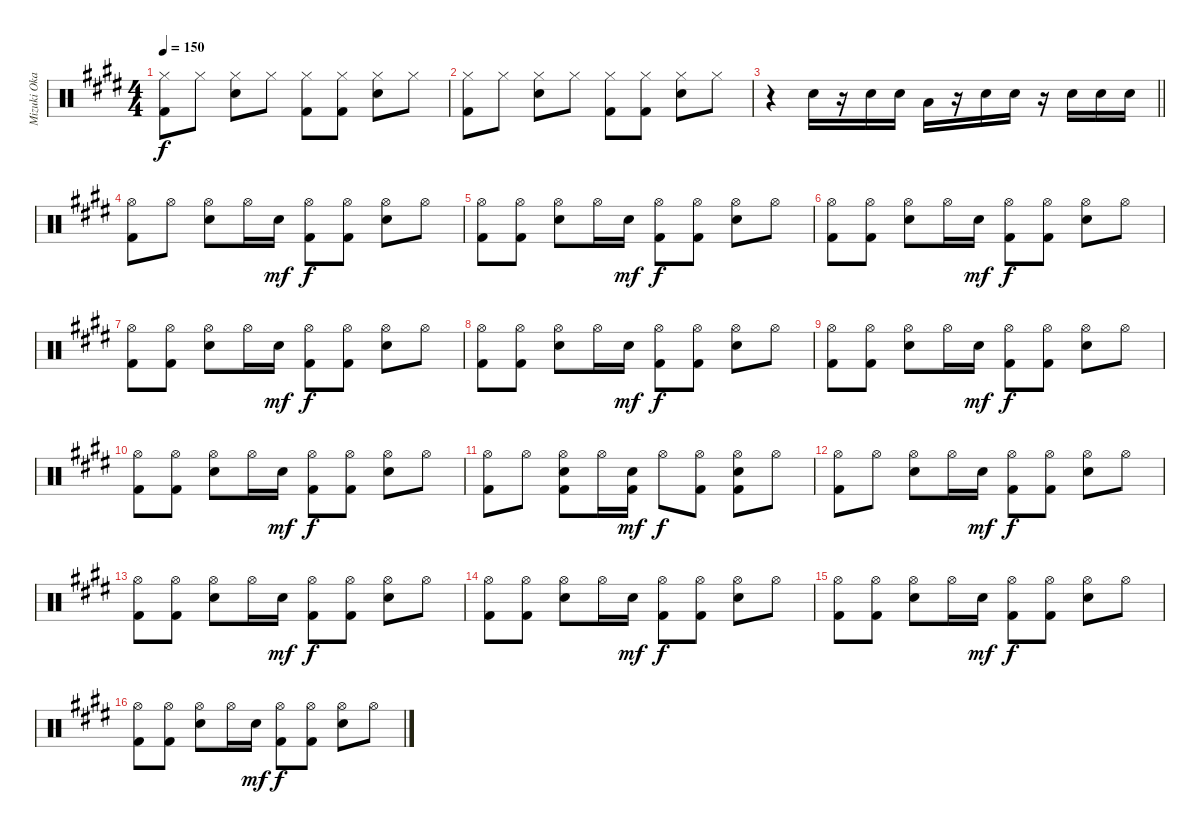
\track ("Mizuki Okajima (Drums)" "Mizuki Oka") {instrument percussion}
\staff {score}
\articulation defaults
\ts (4 4)
\tempo 150
\clef neutral
\ks c#minor
("Hi-Hat (closed)" "Kick (hit) 2").8{dy f} "Hi-Hat (closed)".8 ("Hi-Hat (closed)" "Snare (hit) 2").8 "Hi-Hat (closed)".8 ("Hi-Hat (closed)" "Kick (hit) 2").8 ("Hi-Hat (closed)" "Kick (hit) 2").8 ("Hi-Hat (closed)" "Snare (hit) 2").8 "Hi-Hat (closed)".8 |
("Hi-Hat (closed)" "Kick (hit) 2").8 "Hi-Hat (closed)".8 ("Hi-Hat (closed)" "Snare (hit) 2").8 "Hi-Hat (closed)".8 ("Hi-Hat (closed)" "Kick (hit) 2").8 ("Hi-Hat (closed)" "Kick (hit) 2").8 ("Hi-Hat (closed)" "Snare (hit) 2").8 "Hi-Hat (closed)".8 |
\barLineRight lightlight
r.4 "Snare (hit) 2".16 r.16 "Snare (hit) 2".16 "Snare (hit) 2".16 "Low Tom (hit)".16 r.16 "Snare (hit) 2".16 "Snare (hit) 2".16 r.16 "Snare (hit) 2".16 "Snare (hit) 2".16 "Snare (hit) 2".16 |
("Hi-Hat (open)" "Kick (hit) 2").8 "Hi-Hat (open)".8 ("Hi-Hat (open)" "Snare (hit) 2").8 "Hi-Hat (open)".16 "Snare (hit) 2".16{dy mf} ("Hi-Hat (open)" "Kick (hit) 2").8{dy f} ("Hi-Hat (open)" "Kick (hit) 2").8 ("Hi-Hat (open)" "Snare (hit) 2").8 "Hi-Hat (open)".8 |
("Hi-Hat (open)" "Kick (hit) 2").8 ("Hi-Hat (open)" "Kick (hit) 2").8 ("Hi-Hat (open)" "Snare (hit) 2").8 "Hi-Hat (open)".16 "Snare (hit) 2".16{dy mf} ("Hi-Hat (open)" "Kick (hit) 2").8{dy f} ("Hi-Hat (open)" "Kick (hit) 2").8 ("Hi-Hat (open)" "Snare (hit) 2").8 "Hi-Hat (open)".8 |
("Hi-Hat (open)" "Kick (hit) 2").8 ("Hi-Hat (open)" "Kick (hit) 2").8 ("Hi-Hat (open)" "Snare (hit) 2").8 "Hi-Hat (open)".16 "Snare (hit) 2".16{dy mf} ("Hi-Hat (open)" "Kick (hit) 2").8{dy f} ("Hi-Hat (open)" "Kick (hit) 2").8 ("Hi-Hat (open)" "Snare (hit) 2").8 "Hi-Hat (open)".8 |
("Hi-Hat (open)" "Kick (hit) 2").8 ("Hi-Hat (open)" "Kick (hit) 2").8 ("Hi-Hat (open)" "Snare (hit) 2").8 "Hi-Hat (open)".16 "Snare (hit) 2".16{dy mf} ("Hi-Hat (open)" "Kick (hit) 2").8{dy f} ("Hi-Hat (open)" "Kick (hit) 2").8 ("Hi-Hat (open)" "Snare (hit) 2").8 "Hi-Hat (open)".8 |
("Hi-Hat (open)" "Kick (hit) 2").8 ("Hi-Hat (open)" "Kick (hit) 2").8 ("Hi-Hat (open)" "Snare (hit) 2").8 "Hi-Hat (open)".16 "Snare (hit) 2".16{dy mf} ("Hi-Hat (open)" "Kick (hit) 2").8{dy f} ("Hi-Hat (open)" "Kick (hit) 2").8 ("Hi-Hat (open)" "Snare (hit) 2").8 "Hi-Hat (open)".8 |
("Hi-Hat (open)" "Kick (hit) 2").8 ("Hi-Hat (open)" "Kick (hit) 2").8 ("Hi-Hat (open)" "Snare (hit) 2").8 "Hi-Hat (open)".16 "Snare (hit) 2".16{dy mf} ("Hi-Hat (open)" "Kick (hit) 2").8{dy f} ("Hi-Hat (open)" "Kick (hit) 2").8 ("Hi-Hat (open)" "Snare (hit) 2").8 "Hi-Hat (open)".8 |
("Hi-Hat (open)" "Kick (hit) 2").8 ("Hi-Hat (open)" "Kick (hit) 2").8 ("Hi-Hat (open)" "Snare (hit) 2").8 "Hi-Hat (open)".16 "Snare (hit) 2".16{dy mf} ("Hi-Hat (open)" "Kick (hit) 2").8{dy f} ("Hi-Hat (open)" "Kick (hit) 2").8 ("Hi-Hat (open)" "Snare (hit) 2").8 "Hi-Hat (open)".8 |
("Hi-Hat (open)" "Kick (hit) 2").8 "Hi-Hat (open)".8 ("Hi-Hat (open)" "Snare (hit) 2" "Kick (hit) 2").8 "Hi-Hat (open)".16 ("Snare (hit) 2" "Kick (hit) 2").16{dy mf} "Hi-Hat (open)".8{dy f} ("Hi-Hat (open)" "Kick (hit) 2").8 ("Hi-Hat (open)" "Snare (hit) 2" "Kick (hit) 2").8 "Hi-Hat (open)".8 |
("Hi-Hat (open)" "Kick (hit) 2").8 "Hi-Hat (open)".8 ("Hi-Hat (open)" "Snare (hit) 2").8 "Hi-Hat (open)".16 "Snare (hit) 2".16{dy mf} ("Hi-Hat (open)" "Kick (hit) 2").8{dy f} ("Hi-Hat (open)" "Kick (hit) 2").8 ("Hi-Hat (open)" "Snare (hit) 2").8 "Hi-Hat (open)".8 |
("Hi-Hat (open)" "Kick (hit) 2").8 ("Hi-Hat (open)" "Kick (hit) 2").8 ("Hi-Hat (open)" "Snare (hit) 2").8 "Hi-Hat (open)".16 "Snare (hit) 2".16{dy mf} ("Hi-Hat (open)" "Kick (hit) 2").8{dy f} ("Hi-Hat (open)" "Kick (hit) 2").8 ("Hi-Hat (open)" "Snare (hit) 2").8 "Hi-Hat (open)".8 |
("Hi-Hat (open)" "Kick (hit) 2").8 ("Hi-Hat (open)" "Kick (hit) 2").8 ("Hi-Hat (open)" "Snare (hit) 2").8 "Hi-Hat (open)".16 "Snare (hit) 2".16{dy mf} ("Hi-Hat (open)" "Kick (hit) 2").8{dy f} ("Hi-Hat (open)" "Kick (hit) 2").8 ("Hi-Hat (open)" "Snare (hit) 2").8 "Hi-Hat (open)".8 |
("Hi-Hat (open)" "Kick (hit) 2").8 ("Hi-Hat (open)" "Kick (hit) 2").8 ("Hi-Hat (open)" "Snare (hit) 2").8 "Hi-Hat (open)".16 "Snare (hit) 2".16{dy mf} ("Hi-Hat (open)" "Kick (hit) 2").8{dy f} ("Hi-Hat (open)" "Kick (hit) 2").8 ("Hi-Hat (open)" "Snare (hit) 2").8 "Hi-Hat (open)".8 |
("Hi-Hat (open)" "Kick (hit) 2").8 ("Hi-Hat (open)" "Kick (hit) 2").8 ("Hi-Hat (open)" "Snare (hit) 2").8 "Hi-Hat (open)".16 "Snare (hit) 2".16{dy mf} ("Hi-Hat (open)" "Kick (hit) 2").8{dy f} ("Hi-Hat (open)" "Kick (hit) 2").8 ("Hi-Hat (open)" "Snare (hit) 2").8 "Hi-Hat (open)".8
